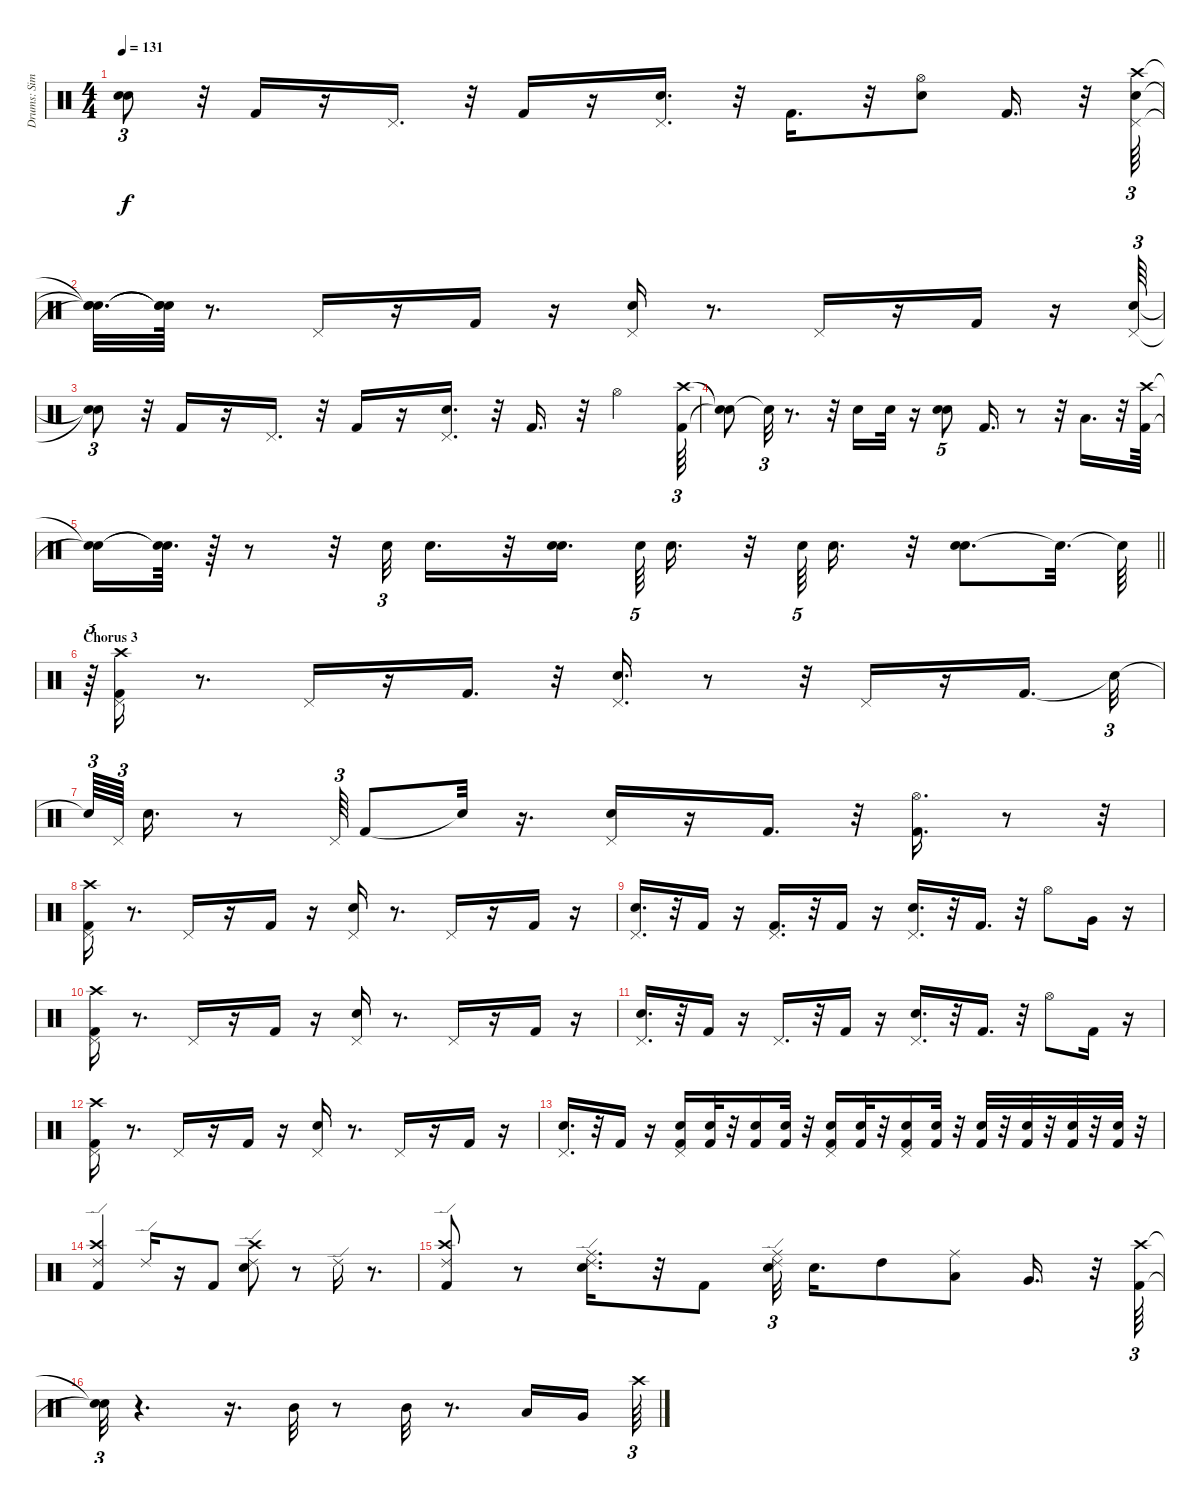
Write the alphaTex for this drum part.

\track ("Drums: Simon Kirke" "Drums: Sim") {instrument percussion}
\staff {score}
\articulation defaults
\ts (4 4)
\tempo 131
\clef neutral
\ks c
("Snare (hit)"{t} "Snare (hit)"{t}).8{tu (3 2) dy f} r.32 "Kick (hit) 2".16 r.16 "Pedal Hi-Hat (hit)".16{d} r.32 "Kick (hit) 2".16 r.16 ("Pedal Hi-Hat (hit)" "Electric Snare (hit)").16{d} r.32 "Kick (hit) 2".16{d} r.32 ("Electric Snare (hit)" "Hi-Hat (open)").8 "Kick (hit) 2".16{d} r.32 ("Electric Snare (hit)" "Pedal Hi-Hat (hit)" "Crash high (hit)").64{tu (3 2)} |
("Snare (hit)"{t} "Snare (hit)"{t} "Snare (hit)"{t}).32{d} ("Snare (hit)"{t} "Snare (hit)"{t} "Snare (hit)"{t}).64 r.8{d} "Pedal Hi-Hat (hit)".16 r.16 "Kick (hit) 2".16 r.16 ("Electric Snare (hit)" "Pedal Hi-Hat (hit)").16 r.8{d} "Pedal Hi-Hat (hit)".16 r.16 "Kick (hit) 2".16 r.16 ("Pedal Hi-Hat (hit)" "Electric Snare (hit)").64{tu (3 2)} |
("Snare (hit)"{t} "Snare (hit)"{t}).8{tu (3 2)} r.32 "Kick (hit) 2".16 r.16 "Pedal Hi-Hat (hit)".16{d} r.32 "Kick (hit) 2".16 r.16 ("Pedal Hi-Hat (hit)" "Electric Snare (hit)").16{d} r.32 "Kick (hit) 2".16{d} r.32 "Hi-Hat (open)".4 ("Crash high (hit)" "Kick (hit) 2").64{tu (3 2)} |
("Snare (hit)"{t} "Snare (hit)"{t}).8 "Snare (hit)"{t}.32{tu (3 2)} r.8{d} r.32 "Electric Snare (hit)".16 "Electric Snare (hit)".32 r.16 ("Electric Snare (hit)" "Electric Snare (hit)").8{tu (5 4)} "Kick (hit) 2".16{d} r.8 r.32 "Low Floor Tom (hit)".16{d} r.32 ("Crash high (hit)" "Kick (hit) 2").64 |
\barLineRight lightlight
("Snare (hit)"{t} "Snare (hit)"{t}).16 ("Snare (hit)"{t} "Snare (hit)"{t}).64{d} r.64 r.8 r.32 "Electric Snare (hit)".32{tu (3 2)} "Electric Snare (hit)".16{d} r.32 ("Electric Snare (hit)" "Electric Snare (hit)").16{d} "Electric Snare (hit)".64{tu (5 4)} "Electric Snare (hit)".16{d} r.32 "Electric Snare (hit)".64{tu (5 4)} "Electric Snare (hit)".16{d} r.32 ("Electric Snare (hit)" "Electric Snare (hit)").8{d} "Snare (hit)"{t}.32{d} "Snare (hit)"{t}.64 |
\section ("" "Chorus 3")
r.64{tu (3 2)} ("Crash high (hit)" "Kick (hit) 2" "Pedal Hi-Hat (hit)").16 r.8{d} "Pedal Hi-Hat (hit)".16 r.16 "Kick (hit) 2".16{d} r.32 ("Pedal Hi-Hat (hit)" "Electric Snare (hit)").16{d} r.8 r.32 "Pedal Hi-Hat (hit)".16 r.16 "Kick (hit) 2".16{d} "Snare (hit)"{t}.32{tu (3 2)} |
"Snare (hit)"{t}.64{tu (3 2)} "Pedal Hi-Hat (hit)".64{tu (3 2) beam splitsecondary} "Electric Snare (hit)".16{d} r.8 "Pedal Hi-Hat (hit)".64{tu (3 2)} "Kick (hit) 2".8 "Snare (hit)"{t}.32 r.16{d} ("Pedal Hi-Hat (hit)" "Electric Snare (hit)").16 r.16 "Kick (hit) 2".16{d} r.32 ("Kick (hit) 2" "Hi-Hat (open)").16{d} r.8 r.32 |
("Crash high (hit)" "Kick (hit) 2" "Pedal Hi-Hat (hit)").16 r.8{d} "Pedal Hi-Hat (hit)".16 r.16 "Kick (hit) 2".16 r.16 ("Electric Snare (hit)" "Pedal Hi-Hat (hit)").16 r.8{d} "Pedal Hi-Hat (hit)".16 r.16 "Kick (hit) 2".16 r.16 |
("Pedal Hi-Hat (hit)" "Electric Snare (hit)").16{d} r.32 "Kick (hit) 2".16 r.16 ("Kick (hit) 2" "Pedal Hi-Hat (hit)").16{d} r.32 "Kick (hit) 2".16 r.16 ("Pedal Hi-Hat (hit)" "Electric Snare (hit)").16{d} r.32 "Kick (hit) 2".16{d} r.32 "Hi-Hat (open)".8 "Very Low Tom (hit)".16 r.16 |
("Crash high (hit)" "Kick (hit) 2" "Pedal Hi-Hat (hit)").16 r.8{d} "Pedal Hi-Hat (hit)".16 r.16 "Kick (hit) 2".16 r.16 ("Electric Snare (hit)" "Pedal Hi-Hat (hit)").16 r.8{d} "Pedal Hi-Hat (hit)".16 r.16 "Kick (hit) 2".16 r.16 |
("Pedal Hi-Hat (hit)" "Electric Snare (hit)").16{d} r.32 "Kick (hit) 2".16 r.16 "Pedal Hi-Hat (hit)".16{d} r.32 "Kick (hit) 2".16 r.16 ("Pedal Hi-Hat (hit)" "Electric Snare (hit)").16{d} r.32 "Kick (hit) 2".16{d} r.32 "Hi-Hat (open)".8 "Kick (hit) 2".16 r.16 |
("Kick (hit) 2" "Crash high (hit)" "Pedal Hi-Hat (hit)").16 r.8{d} "Pedal Hi-Hat (hit)".16 r.16 "Kick (hit) 2".16 r.16 ("Electric Snare (hit)" "Pedal Hi-Hat (hit)").16 r.8{d} "Pedal Hi-Hat (hit)".16 r.16 "Kick (hit) 2".16 r.16 |
("Pedal Hi-Hat (hit)" "Electric Snare (hit)").16{d} r.32 "Kick (hit) 2".16 r.16 ("Electric Snare (hit)" "Kick (hit) 2" "Pedal Hi-Hat (hit)").16 ("Kick (hit) 2" "Electric Snare (hit)").32 r.32 ("Electric Snare (hit)" "Kick (hit) 2").16 ("Kick (hit) 2" "Electric Snare (hit)").32 r.32 ("Kick (hit) 2" "Pedal Hi-Hat (hit)" "Electric Snare (hit)").16 ("Kick (hit) 2" "Electric Snare (hit)").32 r.32 ("Electric Snare (hit)" "Pedal Hi-Hat (hit)" "Kick (hit) 2").16 ("Kick (hit) 2" "Electric Snare (hit)").32 r.32 ("Kick (hit) 2" "Electric Snare (hit)").32 r.32 ("Kick (hit) 2" "Electric Snare (hit)").32 r.32 ("Electric Snare (hit)" "Kick (hit) 2").32 r.32 ("Kick (hit) 2" "Electric Snare (hit)").32 r.32 |
("Ride (edge) 2" "Crash high (hit)" "Kick (hit) 2").4 "Ride (edge) 2".16 r.16 "Kick (hit) 2".8 ("Ride (edge) 2" "Electric Snare (hit)" "Crash high (hit)").8 r.8 "Ride (edge) 2".16 r.8{d} |
("Ride (edge) 2" "Kick (hit) 2" "Crash high (hit)").8 r.8 ("Electric Snare (hit)" "Ride (edge) 2" "Ride (middle)").16{d} r.32 "Kick (hit) 2".8 ("Ride (edge) 2" "Electric Snare (hit)" "Ride (middle)").32{tu (3 2) beam splitsecondary} "Electric Snare (hit)".16{d} "High Tom (hit)".8 ("Ride (middle)" "Low Tom (hit)").8 "Very Low Tom (hit)".16{d} r.32 ("Kick (hit) 2" "Crash high (hit)").64{tu (3 2)} |
("Snare (hit)"{t} "Snare (hit)"{t}).32{tu (3 2)} r.4{d} r.16{d} "Mid Tom (hit)".32 r.8 "Mid Tom (hit)".32 r.8{d} "Low Tom (hit)".16 "Very Low Tom (hit)".16{beam splitsecondary} "Crash high (hit)".64{tu (3 2)}
